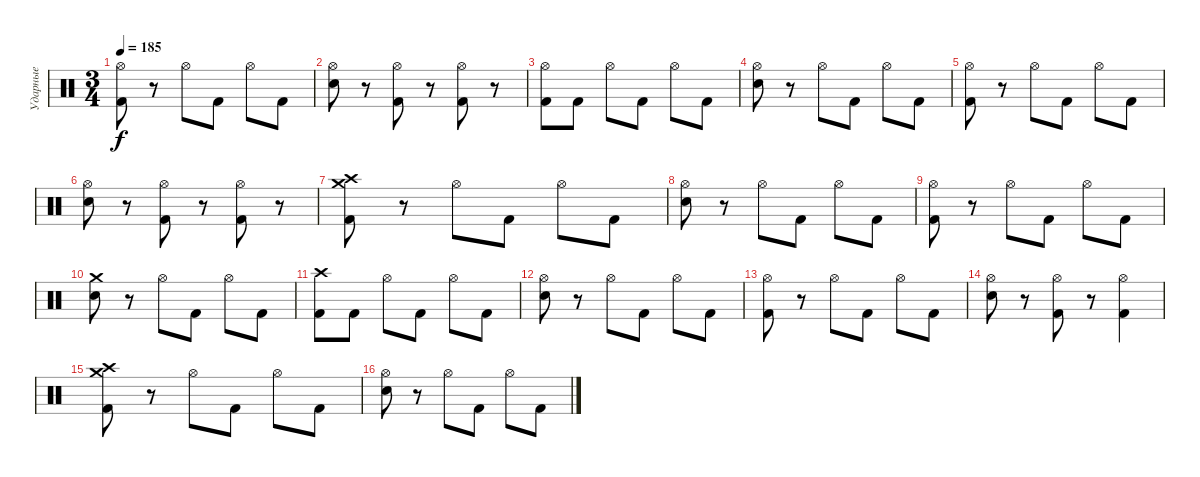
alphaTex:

\track ("Ударные" "Ударные") {instrument percussion}
\staff {score}
\articulation defaults
\ts (3 4)
\tempo 185
\clef neutral
\ks c
("Hi-Hat (open)" "Kick (hit) 2").8{dy f} r.8 "Hi-Hat (open)".8 "Kick (hit) 2".8 "Hi-Hat (open)".8 "Kick (hit) 2".8 |
("Hi-Hat (open)" "Snare (hit) 2").8 r.8 ("Hi-Hat (open)" "Kick (hit) 2").8 r.8 ("Hi-Hat (open)" "Kick (hit) 2").8 r.8 |
("Hi-Hat (open)" "Kick (hit) 2").8 "Kick (hit) 2".8 "Hi-Hat (open)".8 "Kick (hit) 2".8 "Hi-Hat (open)".8 "Kick (hit) 2".8 |
("Hi-Hat (open)" "Snare (hit) 2").8 r.8 "Hi-Hat (open)".8 "Kick (hit) 2".8 "Hi-Hat (open)".8 "Kick (hit) 2".8 |
("Hi-Hat (open)" "Kick (hit) 2").8 r.8 "Hi-Hat (open)".8 "Kick (hit) 2".8 "Hi-Hat (open)".8 "Kick (hit) 2".8 |
("Hi-Hat (open)" "Snare (hit) 2").8 r.8 ("Hi-Hat (open)" "Kick (hit) 2").8 r.8 ("Hi-Hat (open)" "Kick (hit) 2").8 r.8 |
("Crash high (hit)" "Crash medium (hit)" "Kick (hit) 2").8 r.8 "Hi-Hat (open)".8 "Kick (hit) 2".8 "Hi-Hat (open)".8 "Kick (hit) 2".8 |
("Hi-Hat (open)" "Snare (hit) 2").8 r.8 "Hi-Hat (open)".8 "Kick (hit) 2".8 "Hi-Hat (open)".8 "Kick (hit) 2".8 |
("Hi-Hat (open)" "Kick (hit) 2").8 r.8 "Hi-Hat (open)".8 "Kick (hit) 2".8 "Hi-Hat (open)".8 "Kick (hit) 2".8 |
("Crash medium (hit)" "Snare (hit) 2").8 r.8 "Hi-Hat (open)".8 "Kick (hit) 2".8 "Hi-Hat (open)".8 "Kick (hit) 2".8 |
("Crash high (hit)" "Kick (hit) 2").8 "Kick (hit) 2".8 "Hi-Hat (open)".8 "Kick (hit) 2".8 "Hi-Hat (open)".8 "Kick (hit) 2".8 |
("Hi-Hat (open)" "Snare (hit) 2").8 r.8 "Hi-Hat (open)".8 "Kick (hit) 2".8 "Hi-Hat (open)".8 "Kick (hit) 2".8 |
("Hi-Hat (open)" "Kick (hit) 2").8 r.8 "Hi-Hat (open)".8 "Kick (hit) 2".8 "Hi-Hat (open)".8 "Kick (hit) 2".8 |
("Hi-Hat (open)" "Snare (hit) 2").8 r.8 ("Hi-Hat (open)" "Kick (hit) 2").8 r.8 ("Hi-Hat (open)" "Kick (hit) 2").4 |
("Crash high (hit)" "Crash medium (hit)" "Kick (hit) 2").8 r.8 "Hi-Hat (open)".8 "Kick (hit) 2".8 "Hi-Hat (open)".8 "Kick (hit) 2".8 |
("Hi-Hat (open)" "Snare (hit) 2").8 r.8 "Hi-Hat (open)".8 "Kick (hit) 2".8 "Hi-Hat (open)".8 "Kick (hit) 2".8
